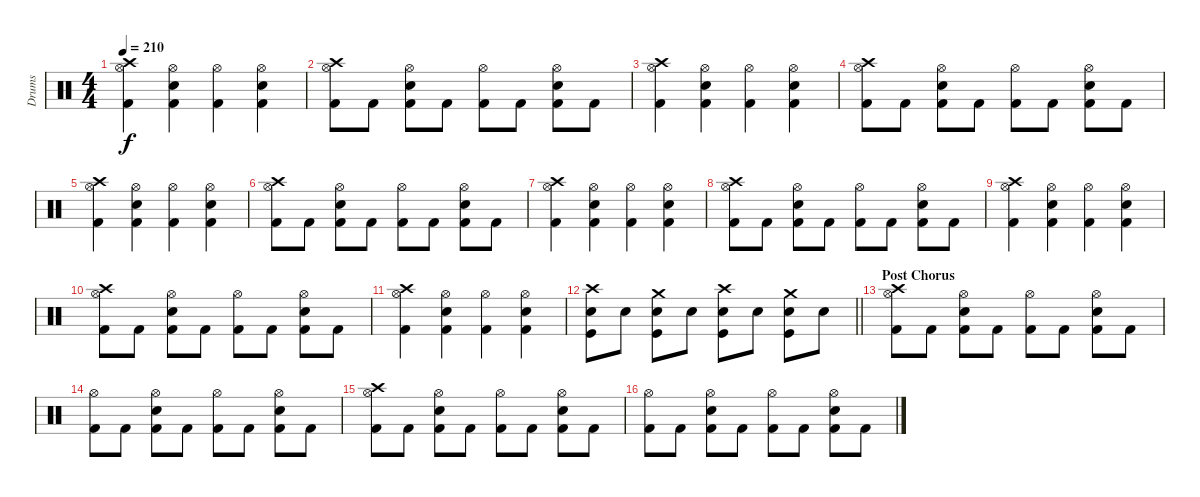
\track ("Drums" "Drums") {instrument percussion}
\staff {score}
\articulation defaults
\ts (4 4)
\tempo 210
\clef neutral
\ks c
("Crash high (hit)" "Hi-Hat (open)" "Kick (hit) 2").4{dy f} ("Hi-Hat (open)" "Snare (hit) 2" "Kick (hit) 2").4 ("Hi-Hat (open)" "Kick (hit) 2").4 ("Hi-Hat (open)" "Snare (hit) 2" "Kick (hit) 2").4 |
("Crash high (hit)" "Hi-Hat (open)" "Kick (hit) 2").8 "Kick (hit) 2".8 ("Hi-Hat (open)" "Snare (hit) 2" "Kick (hit) 2").8 "Kick (hit) 2".8 ("Hi-Hat (open)" "Kick (hit) 2").8 "Kick (hit) 2".8 ("Hi-Hat (open)" "Snare (hit) 2" "Kick (hit) 2").8 "Kick (hit) 2".8 |
("Crash high (hit)" "Hi-Hat (open)" "Kick (hit) 2").4 ("Hi-Hat (open)" "Snare (hit) 2" "Kick (hit) 2").4 ("Hi-Hat (open)" "Kick (hit) 2").4 ("Hi-Hat (open)" "Snare (hit) 2" "Kick (hit) 2").4 |
("Crash high (hit)" "Hi-Hat (open)" "Kick (hit) 2").8 "Kick (hit) 2".8 ("Hi-Hat (open)" "Snare (hit) 2" "Kick (hit) 2").8 "Kick (hit) 2".8 ("Hi-Hat (open)" "Kick (hit) 2").8 "Kick (hit) 2".8 ("Hi-Hat (open)" "Snare (hit) 2" "Kick (hit) 2").8 "Kick (hit) 2".8 |
("Crash high (hit)" "Hi-Hat (open)" "Kick (hit) 2").4 ("Hi-Hat (open)" "Snare (hit) 2" "Kick (hit) 2").4 ("Hi-Hat (open)" "Kick (hit) 2").4 ("Hi-Hat (open)" "Snare (hit) 2" "Kick (hit) 2").4 |
("Crash high (hit)" "Hi-Hat (open)" "Kick (hit) 2").8 "Kick (hit) 2".8 ("Hi-Hat (open)" "Snare (hit) 2" "Kick (hit) 2").8 "Kick (hit) 2".8 ("Hi-Hat (open)" "Kick (hit) 2").8 "Kick (hit) 2".8 ("Hi-Hat (open)" "Snare (hit) 2" "Kick (hit) 2").8 "Kick (hit) 2".8 |
("Crash high (hit)" "Hi-Hat (open)" "Kick (hit) 2").4 ("Hi-Hat (open)" "Snare (hit) 2" "Kick (hit) 2").4 ("Hi-Hat (open)" "Kick (hit) 2").4 ("Hi-Hat (open)" "Snare (hit) 2" "Kick (hit) 2").4 |
("Crash high (hit)" "Hi-Hat (open)" "Kick (hit) 2").8 "Kick (hit) 2".8 ("Hi-Hat (open)" "Snare (hit) 2" "Kick (hit) 2").8 "Kick (hit) 2".8 ("Hi-Hat (open)" "Kick (hit) 2").8 "Kick (hit) 2".8 ("Hi-Hat (open)" "Snare (hit) 2" "Kick (hit) 2").8 "Kick (hit) 2".8 |
("Crash high (hit)" "Hi-Hat (open)" "Kick (hit) 2").4 ("Hi-Hat (open)" "Snare (hit) 2" "Kick (hit) 2").4 ("Hi-Hat (open)" "Kick (hit) 2").4 ("Hi-Hat (open)" "Snare (hit) 2" "Kick (hit) 2").4 |
("Crash high (hit)" "Hi-Hat (open)" "Kick (hit) 2").8 "Kick (hit) 2".8 ("Hi-Hat (open)" "Snare (hit) 2" "Kick (hit) 2").8 "Kick (hit) 2".8 ("Hi-Hat (open)" "Kick (hit) 2").8 "Kick (hit) 2".8 ("Hi-Hat (open)" "Snare (hit) 2" "Kick (hit) 2").8 "Kick (hit) 2".8 |
("Crash high (hit)" "Hi-Hat (open)" "Kick (hit) 2").4 ("Hi-Hat (open)" "Snare (hit) 2" "Kick (hit) 2").4 ("Hi-Hat (open)" "Kick (hit) 2").4 ("Hi-Hat (open)" "Snare (hit) 2" "Kick (hit) 2").4 |
\barLineRight lightlight
("Crash high (hit)" "Snare (hit) 2" "Kick (hit)").8 "Snare (hit) 2".8 ("Crash medium (hit)" "Snare (hit) 2" "Kick (hit)").8 "Snare (hit) 2".8 ("Crash high (hit)" "Snare (hit) 2" "Kick (hit)").8 "Snare (hit) 2".8 ("Crash medium (hit)" "Snare (hit) 2" "Kick (hit)").8 "Snare (hit) 2".8 |
\section ("" "Post Chorus")
("Crash high (hit)" "Hi-Hat (open)" "Kick (hit) 2").8 "Kick (hit) 2".8 ("Hi-Hat (open)" "Snare (hit) 2" "Kick (hit) 2").8 "Kick (hit) 2".8 ("Hi-Hat (open)" "Kick (hit) 2").8 "Kick (hit) 2".8 ("Hi-Hat (open)" "Snare (hit) 2" "Kick (hit) 2").8 "Kick (hit) 2".8 |
("Hi-Hat (open)" "Kick (hit) 2").8 "Kick (hit) 2".8 ("Hi-Hat (open)" "Snare (hit) 2" "Kick (hit) 2").8 "Kick (hit) 2".8 ("Hi-Hat (open)" "Kick (hit) 2").8 "Kick (hit) 2".8 ("Hi-Hat (open)" "Snare (hit) 2" "Kick (hit) 2").8 "Kick (hit) 2".8 |
("Crash high (hit)" "Hi-Hat (open)" "Kick (hit) 2").8 "Kick (hit) 2".8 ("Hi-Hat (open)" "Snare (hit) 2" "Kick (hit) 2").8 "Kick (hit) 2".8 ("Hi-Hat (open)" "Kick (hit) 2").8 "Kick (hit) 2".8 ("Hi-Hat (open)" "Snare (hit) 2" "Kick (hit) 2").8 "Kick (hit) 2".8 |
("Hi-Hat (open)" "Kick (hit) 2").8 "Kick (hit) 2".8 ("Hi-Hat (open)" "Snare (hit) 2" "Kick (hit) 2").8 "Kick (hit) 2".8 ("Hi-Hat (open)" "Kick (hit) 2").8 "Kick (hit) 2".8 ("Hi-Hat (open)" "Snare (hit) 2" "Kick (hit) 2").8 "Kick (hit) 2".8
